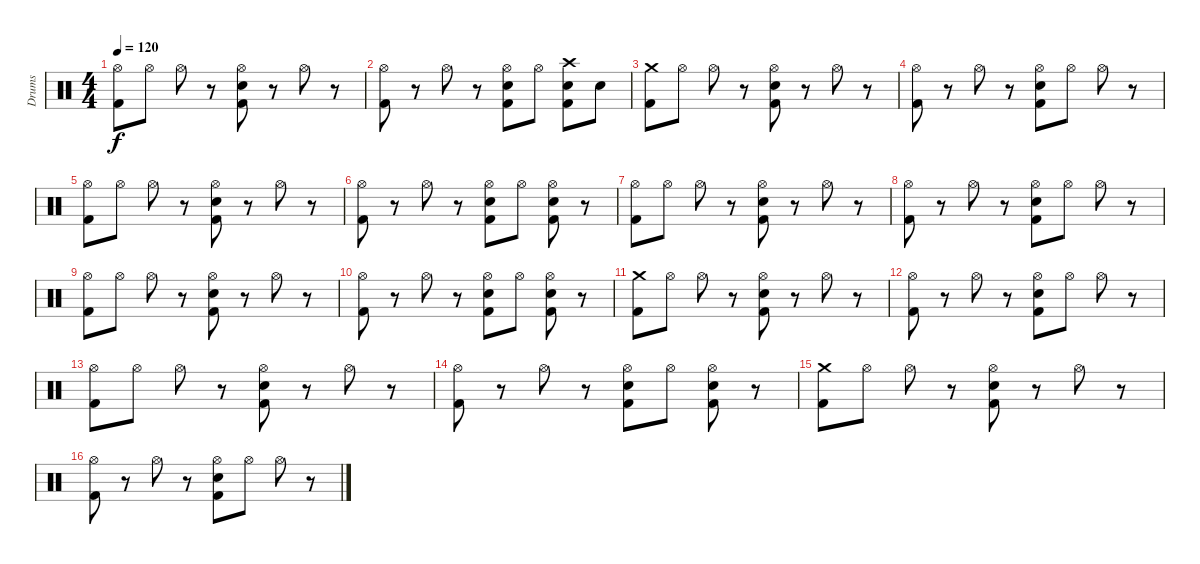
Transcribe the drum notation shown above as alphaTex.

\track ("Drums" "Drums") {instrument percussion}
\staff {score}
\articulation defaults
\ts (4 4)
\tempo 120
\clef neutral
\ks c
("Hi-Hat (open)" "Kick (hit) 2").8{dy f} "Hi-Hat (open)".8 "Hi-Hat (open)".8 r.8 ("Hi-Hat (open)" "Snare (hit) 2" "Kick (hit) 2").8 r.8 "Hi-Hat (open)".8 r.8 |
("Hi-Hat (open)" "Kick (hit) 2").8 r.8 "Hi-Hat (open)".8 r.8 ("Hi-Hat (open)" "Snare (hit) 2" "Kick (hit) 2").8 "Hi-Hat (open)".8 ("Crash high (hit)" "Snare (hit) 2" "Kick (hit) 2").8 "Snare (hit) 2".8 |
("Crash medium (hit)" "Kick (hit) 2").8 "Hi-Hat (open)".8 "Hi-Hat (open)".8 r.8 ("Hi-Hat (open)" "Snare (hit) 2" "Kick (hit) 2").8 r.8 "Hi-Hat (open)".8 r.8 |
("Hi-Hat (open)" "Kick (hit) 2").8 r.8 "Hi-Hat (open)".8 r.8 ("Hi-Hat (open)" "Snare (hit) 2" "Kick (hit) 2").8 "Hi-Hat (open)".8 "Hi-Hat (open)".8 r.8 |
("Hi-Hat (open)" "Kick (hit) 2").8 "Hi-Hat (open)".8 "Hi-Hat (open)".8 r.8 ("Hi-Hat (open)" "Snare (hit) 2" "Kick (hit) 2").8 r.8 "Hi-Hat (open)".8 r.8 |
("Hi-Hat (open)" "Kick (hit) 2").8 r.8 "Hi-Hat (open)".8 r.8 ("Hi-Hat (open)" "Snare (hit) 2" "Kick (hit) 2").8 "Hi-Hat (open)".8 ("Hi-Hat (open)" "Snare (hit) 2" "Kick (hit) 2").8 r.8 |
("Hi-Hat (open)" "Kick (hit) 2").8 "Hi-Hat (open)".8 "Hi-Hat (open)".8 r.8 ("Hi-Hat (open)" "Snare (hit) 2" "Kick (hit) 2").8 r.8 "Hi-Hat (open)".8 r.8 |
("Hi-Hat (open)" "Kick (hit) 2").8 r.8 "Hi-Hat (open)".8 r.8 ("Hi-Hat (open)" "Snare (hit) 2" "Kick (hit) 2").8 "Hi-Hat (open)".8 "Hi-Hat (open)".8 r.8 |
("Hi-Hat (open)" "Kick (hit) 2").8 "Hi-Hat (open)".8 "Hi-Hat (open)".8 r.8 ("Hi-Hat (open)" "Snare (hit) 2" "Kick (hit) 2").8 r.8 "Hi-Hat (open)".8 r.8 |
("Hi-Hat (open)" "Kick (hit) 2").8 r.8 "Hi-Hat (open)".8 r.8 ("Hi-Hat (open)" "Snare (hit) 2" "Kick (hit) 2").8 "Hi-Hat (open)".8 ("Hi-Hat (open)" "Snare (hit) 2" "Kick (hit) 2").8 r.8 |
("Crash medium (hit)" "Kick (hit) 2").8 "Hi-Hat (open)".8 "Hi-Hat (open)".8 r.8 ("Hi-Hat (open)" "Snare (hit) 2" "Kick (hit) 2").8 r.8 "Hi-Hat (open)".8 r.8 |
("Hi-Hat (open)" "Kick (hit) 2").8 r.8 "Hi-Hat (open)".8 r.8 ("Hi-Hat (open)" "Snare (hit) 2" "Kick (hit) 2").8 "Hi-Hat (open)".8 "Hi-Hat (open)".8 r.8 |
("Hi-Hat (open)" "Kick (hit) 2").8 "Hi-Hat (open)".8 "Hi-Hat (open)".8 r.8 ("Hi-Hat (open)" "Snare (hit) 2" "Kick (hit) 2").8 r.8 "Hi-Hat (open)".8 r.8 |
("Hi-Hat (open)" "Kick (hit) 2").8 r.8 "Hi-Hat (open)".8 r.8 ("Hi-Hat (open)" "Snare (hit) 2" "Kick (hit) 2").8 "Hi-Hat (open)".8 ("Hi-Hat (open)" "Snare (hit) 2" "Kick (hit) 2").8 r.8 |
("Crash medium (hit)" "Kick (hit) 2").8 "Hi-Hat (open)".8 "Hi-Hat (open)".8 r.8 ("Hi-Hat (open)" "Snare (hit) 2" "Kick (hit) 2").8 r.8 "Hi-Hat (open)".8 r.8 |
("Hi-Hat (open)" "Kick (hit) 2").8 r.8 "Hi-Hat (open)".8 r.8 ("Hi-Hat (open)" "Snare (hit) 2" "Kick (hit) 2").8 "Hi-Hat (open)".8 "Hi-Hat (open)".8 r.8
